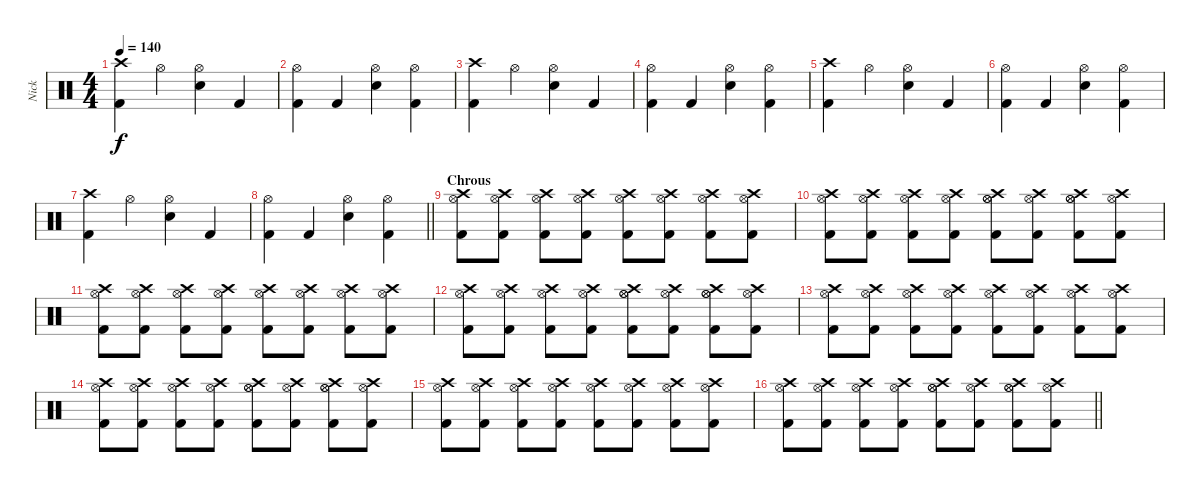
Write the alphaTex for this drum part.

\track ("Nick" "Nick") {instrument percussion}
\staff {score}
\articulation defaults
\ts (4 4)
\tempo 140
\clef neutral
\ks c
("Crash high (hit)" "Kick (hit) 2").4{dy f} "Hi-Hat (open)".4 ("Hi-Hat (open)" "Snare (hit) 2").4 "Kick (hit) 2".4 |
("Hi-Hat (open)" "Kick (hit) 2").4 "Kick (hit) 2".4 ("Hi-Hat (open)" "Snare (hit) 2").4 ("Hi-Hat (open)" "Kick (hit) 2").4 |
("Crash high (hit)" "Kick (hit) 2").4 "Hi-Hat (open)".4 ("Hi-Hat (open)" "Snare (hit) 2").4 "Kick (hit) 2".4 |
("Hi-Hat (open)" "Kick (hit) 2").4 "Kick (hit) 2".4 ("Hi-Hat (open)" "Snare (hit) 2").4 ("Hi-Hat (open)" "Kick (hit) 2").4 |
("Crash high (hit)" "Kick (hit) 2").4 "Hi-Hat (open)".4 ("Hi-Hat (open)" "Snare (hit) 2").4 "Kick (hit) 2".4 |
("Hi-Hat (open)" "Kick (hit) 2").4 "Kick (hit) 2".4 ("Hi-Hat (open)" "Snare (hit) 2").4 ("Hi-Hat (open)" "Kick (hit) 2").4 |
("Crash high (hit)" "Kick (hit) 2").4 "Hi-Hat (open)".4 ("Hi-Hat (open)" "Snare (hit) 2").4 "Kick (hit) 2".4 |
\barLineRight lightlight
("Hi-Hat (open)" "Kick (hit) 2").4 "Kick (hit) 2".4 ("Hi-Hat (open)" "Snare (hit) 2").4 ("Hi-Hat (open)" "Kick (hit) 2").4 |
\section ("" "Chrous")
("Hi-Hat (open)" "Crash high (hit)" "Kick (hit) 2").8 ("Hi-Hat (open)" "Crash high (hit)" "Kick (hit) 2").8 ("Hi-Hat (open)" "Crash high (hit)" "Kick (hit) 2").8 ("Hi-Hat (open)" "Crash high (hit)" "Kick (hit) 2").8 ("Hi-Hat (open)" "Crash high (hit)" "Kick (hit) 2").8 ("Hi-Hat (open)" "Crash high (hit)" "Kick (hit) 2").8 ("Hi-Hat (open)" "Crash high (hit)" "Kick (hit) 2").8 ("Hi-Hat (open)" "Crash high (hit)" "Kick (hit) 2").8 |
("Hi-Hat (open)" "Crash high (hit)" "Kick (hit) 2").8 ("Hi-Hat (open)" "Crash high (hit)" "Kick (hit) 2").8 ("Hi-Hat (open)" "Crash high (hit)" "Kick (hit) 2").8 ("Hi-Hat (open)" "Crash high (hit)" "Kick (hit) 2").8 ("Hi-Hat (open)" "Hi-Hat (open)" "Crash high (hit)" "Kick (hit) 2").8 ("Hi-Hat (open)" "Crash high (hit)" "Kick (hit) 2").8 ("Hi-Hat (open)" "Hi-Hat (open)" "Crash high (hit)" "Kick (hit) 2").8 ("Hi-Hat (open)" "Crash high (hit)" "Kick (hit) 2").8 |
("Hi-Hat (open)" "Crash high (hit)" "Kick (hit) 2").8 ("Hi-Hat (open)" "Crash high (hit)" "Kick (hit) 2").8 ("Hi-Hat (open)" "Crash high (hit)" "Kick (hit) 2").8 ("Hi-Hat (open)" "Crash high (hit)" "Kick (hit) 2").8 ("Hi-Hat (open)" "Crash high (hit)" "Kick (hit) 2").8 ("Hi-Hat (open)" "Crash high (hit)" "Kick (hit) 2").8 ("Hi-Hat (open)" "Crash high (hit)" "Kick (hit) 2").8 ("Hi-Hat (open)" "Crash high (hit)" "Kick (hit) 2").8 |
("Hi-Hat (open)" "Crash high (hit)" "Kick (hit) 2").8 ("Hi-Hat (open)" "Crash high (hit)" "Kick (hit) 2").8 ("Hi-Hat (open)" "Crash high (hit)" "Kick (hit) 2").8 ("Hi-Hat (open)" "Crash high (hit)" "Kick (hit) 2").8 ("Hi-Hat (open)" "Hi-Hat (open)" "Crash high (hit)" "Kick (hit) 2").8 ("Hi-Hat (open)" "Crash high (hit)" "Kick (hit) 2").8 ("Hi-Hat (open)" "Hi-Hat (open)" "Crash high (hit)" "Kick (hit) 2").8 ("Hi-Hat (open)" "Crash high (hit)" "Kick (hit) 2").8 |
("Hi-Hat (open)" "Crash high (hit)" "Kick (hit) 2").8 ("Hi-Hat (open)" "Crash high (hit)" "Kick (hit) 2").8 ("Hi-Hat (open)" "Crash high (hit)" "Kick (hit) 2").8 ("Hi-Hat (open)" "Crash high (hit)" "Kick (hit) 2").8 ("Hi-Hat (open)" "Crash high (hit)" "Kick (hit) 2").8 ("Hi-Hat (open)" "Crash high (hit)" "Kick (hit) 2").8 ("Hi-Hat (open)" "Crash high (hit)" "Kick (hit) 2").8 ("Hi-Hat (open)" "Crash high (hit)" "Kick (hit) 2").8 |
("Hi-Hat (open)" "Crash high (hit)" "Kick (hit) 2").8 ("Hi-Hat (open)" "Crash high (hit)" "Kick (hit) 2").8 ("Hi-Hat (open)" "Crash high (hit)" "Kick (hit) 2").8 ("Hi-Hat (open)" "Crash high (hit)" "Kick (hit) 2").8 ("Hi-Hat (open)" "Hi-Hat (open)" "Crash high (hit)" "Kick (hit) 2").8 ("Hi-Hat (open)" "Crash high (hit)" "Kick (hit) 2").8 ("Hi-Hat (open)" "Hi-Hat (open)" "Crash high (hit)" "Kick (hit) 2").8 ("Hi-Hat (open)" "Crash high (hit)" "Kick (hit) 2").8 |
("Hi-Hat (open)" "Crash high (hit)" "Kick (hit) 2").8 ("Hi-Hat (open)" "Crash high (hit)" "Kick (hit) 2").8 ("Hi-Hat (open)" "Crash high (hit)" "Kick (hit) 2").8 ("Hi-Hat (open)" "Crash high (hit)" "Kick (hit) 2").8 ("Hi-Hat (open)" "Crash high (hit)" "Kick (hit) 2").8 ("Hi-Hat (open)" "Crash high (hit)" "Kick (hit) 2").8 ("Hi-Hat (open)" "Crash high (hit)" "Kick (hit) 2").8 ("Hi-Hat (open)" "Crash high (hit)" "Kick (hit) 2").8 |
\barLineRight lightlight
("Hi-Hat (open)" "Crash high (hit)" "Kick (hit) 2").8 ("Hi-Hat (open)" "Crash high (hit)" "Kick (hit) 2").8 ("Hi-Hat (open)" "Crash high (hit)" "Kick (hit) 2").8 ("Hi-Hat (open)" "Crash high (hit)" "Kick (hit) 2").8 ("Hi-Hat (open)" "Hi-Hat (open)" "Crash high (hit)" "Kick (hit) 2").8 ("Hi-Hat (open)" "Crash high (hit)" "Kick (hit) 2").8 ("Hi-Hat (open)" "Hi-Hat (open)" "Crash high (hit)" "Kick (hit) 2").8 ("Hi-Hat (open)" "Crash high (hit)" "Kick (hit) 2").8
